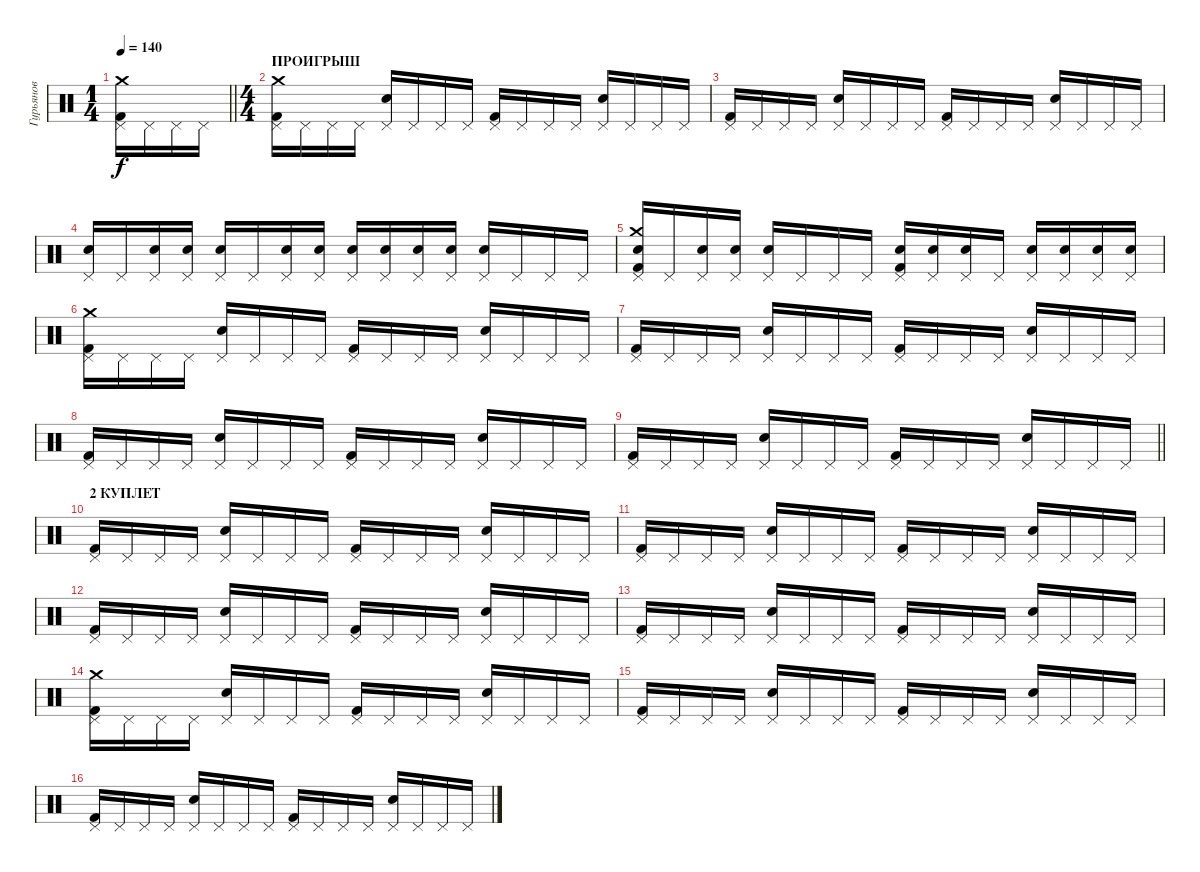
\track ("Гурьянов" "Гурьянов") {instrument percussion}
\staff {score}
\articulation defaults
\ts (1 4)
\tempo 140
\clef neutral
\barLineRight lightlight
\ks c
("Pedal Hi-Hat (hit)" "Kick (hit) 2" "Crash medium (hit)").16{dy f} "Pedal Hi-Hat (hit)".16 "Pedal Hi-Hat (hit)".16 "Pedal Hi-Hat (hit)".16 |
\ts (4 4)
\section ("" "ПРОИГРЫШ")
("Pedal Hi-Hat (hit)" "Kick (hit) 2" "Crash medium (hit)").16 "Pedal Hi-Hat (hit)".16 "Pedal Hi-Hat (hit)".16 "Pedal Hi-Hat (hit)".16 ("Pedal Hi-Hat (hit)" "Electric Snare (hit)").16 "Pedal Hi-Hat (hit)".16 "Pedal Hi-Hat (hit)".16 "Pedal Hi-Hat (hit)".16 ("Pedal Hi-Hat (hit)" "Kick (hit) 2").16 "Pedal Hi-Hat (hit)".16 "Pedal Hi-Hat (hit)".16 "Pedal Hi-Hat (hit)".16 ("Pedal Hi-Hat (hit)" "Electric Snare (hit)").16 "Pedal Hi-Hat (hit)".16 "Pedal Hi-Hat (hit)".16 "Pedal Hi-Hat (hit)".16 |
("Pedal Hi-Hat (hit)" "Kick (hit) 2").16 "Pedal Hi-Hat (hit)".16 "Pedal Hi-Hat (hit)".16 "Pedal Hi-Hat (hit)".16 ("Pedal Hi-Hat (hit)" "Electric Snare (hit)").16 "Pedal Hi-Hat (hit)".16 "Pedal Hi-Hat (hit)".16 "Pedal Hi-Hat (hit)".16 ("Pedal Hi-Hat (hit)" "Kick (hit) 2").16 "Pedal Hi-Hat (hit)".16 "Pedal Hi-Hat (hit)".16 "Pedal Hi-Hat (hit)".16 ("Pedal Hi-Hat (hit)" "Electric Snare (hit)").16 "Pedal Hi-Hat (hit)".16 "Pedal Hi-Hat (hit)".16 "Pedal Hi-Hat (hit)".16 |
("Pedal Hi-Hat (hit)" "Electric Snare (hit)").16 "Pedal Hi-Hat (hit)".16 ("Pedal Hi-Hat (hit)" "Electric Snare (hit)").16 ("Pedal Hi-Hat (hit)" "Electric Snare (hit)").16 ("Pedal Hi-Hat (hit)" "Electric Snare (hit)").16 "Pedal Hi-Hat (hit)".16 ("Pedal Hi-Hat (hit)" "Electric Snare (hit)").16 ("Pedal Hi-Hat (hit)" "Electric Snare (hit)").16 ("Pedal Hi-Hat (hit)" "Electric Snare (hit)").16 ("Pedal Hi-Hat (hit)" "Electric Snare (hit)").16 ("Pedal Hi-Hat (hit)" "Electric Snare (hit)").16 ("Pedal Hi-Hat (hit)" "Electric Snare (hit)").16 ("Pedal Hi-Hat (hit)" "Electric Snare (hit)").16 "Pedal Hi-Hat (hit)".16 "Pedal Hi-Hat (hit)".16 "Pedal Hi-Hat (hit)".16 |
("Pedal Hi-Hat (hit)" "Crash medium (hit)" "Kick (hit) 2" "Electric Snare (hit)").16 "Pedal Hi-Hat (hit)".16 ("Pedal Hi-Hat (hit)" "Electric Snare (hit)").16 ("Pedal Hi-Hat (hit)" "Electric Snare (hit)").16 ("Pedal Hi-Hat (hit)" "Electric Snare (hit)").16 "Pedal Hi-Hat (hit)".16 "Pedal Hi-Hat (hit)".16 "Pedal Hi-Hat (hit)".16 ("Pedal Hi-Hat (hit)" "Kick (hit) 2" "Electric Snare (hit)").16 ("Pedal Hi-Hat (hit)" "Electric Snare (hit)").16 ("Pedal Hi-Hat (hit)" "Electric Snare (hit)").16 "Pedal Hi-Hat (hit)".16 ("Pedal Hi-Hat (hit)" "Electric Snare (hit)").16 ("Pedal Hi-Hat (hit)" "Electric Snare (hit)").16 ("Pedal Hi-Hat (hit)" "Electric Snare (hit)").16 ("Pedal Hi-Hat (hit)" "Electric Snare (hit)").16 |
("Pedal Hi-Hat (hit)" "Kick (hit) 2" "Crash medium (hit)").16 "Pedal Hi-Hat (hit)".16 "Pedal Hi-Hat (hit)".16 "Pedal Hi-Hat (hit)".16 ("Pedal Hi-Hat (hit)" "Electric Snare (hit)").16 "Pedal Hi-Hat (hit)".16 "Pedal Hi-Hat (hit)".16 "Pedal Hi-Hat (hit)".16 ("Pedal Hi-Hat (hit)" "Kick (hit) 2").16 "Pedal Hi-Hat (hit)".16 "Pedal Hi-Hat (hit)".16 "Pedal Hi-Hat (hit)".16 ("Pedal Hi-Hat (hit)" "Electric Snare (hit)").16 "Pedal Hi-Hat (hit)".16 "Pedal Hi-Hat (hit)".16 "Pedal Hi-Hat (hit)".16 |
("Pedal Hi-Hat (hit)" "Kick (hit) 2").16 "Pedal Hi-Hat (hit)".16 "Pedal Hi-Hat (hit)".16 "Pedal Hi-Hat (hit)".16 ("Pedal Hi-Hat (hit)" "Electric Snare (hit)").16 "Pedal Hi-Hat (hit)".16 "Pedal Hi-Hat (hit)".16 "Pedal Hi-Hat (hit)".16 ("Pedal Hi-Hat (hit)" "Kick (hit) 2").16 "Pedal Hi-Hat (hit)".16 "Pedal Hi-Hat (hit)".16 "Pedal Hi-Hat (hit)".16 ("Pedal Hi-Hat (hit)" "Electric Snare (hit)").16 "Pedal Hi-Hat (hit)".16 "Pedal Hi-Hat (hit)".16 "Pedal Hi-Hat (hit)".16 |
("Pedal Hi-Hat (hit)" "Kick (hit) 2").16 "Pedal Hi-Hat (hit)".16 "Pedal Hi-Hat (hit)".16 "Pedal Hi-Hat (hit)".16 ("Pedal Hi-Hat (hit)" "Electric Snare (hit)").16 "Pedal Hi-Hat (hit)".16 "Pedal Hi-Hat (hit)".16 "Pedal Hi-Hat (hit)".16 ("Pedal Hi-Hat (hit)" "Kick (hit) 2").16 "Pedal Hi-Hat (hit)".16 "Pedal Hi-Hat (hit)".16 "Pedal Hi-Hat (hit)".16 ("Pedal Hi-Hat (hit)" "Electric Snare (hit)").16 "Pedal Hi-Hat (hit)".16 "Pedal Hi-Hat (hit)".16 "Pedal Hi-Hat (hit)".16 |
\barLineRight lightlight
("Pedal Hi-Hat (hit)" "Kick (hit) 2").16 "Pedal Hi-Hat (hit)".16 "Pedal Hi-Hat (hit)".16 "Pedal Hi-Hat (hit)".16 ("Pedal Hi-Hat (hit)" "Electric Snare (hit)").16 "Pedal Hi-Hat (hit)".16 "Pedal Hi-Hat (hit)".16 "Pedal Hi-Hat (hit)".16 ("Pedal Hi-Hat (hit)" "Kick (hit) 2").16 "Pedal Hi-Hat (hit)".16 "Pedal Hi-Hat (hit)".16 "Pedal Hi-Hat (hit)".16 ("Pedal Hi-Hat (hit)" "Electric Snare (hit)").16 "Pedal Hi-Hat (hit)".16 "Pedal Hi-Hat (hit)".16 "Pedal Hi-Hat (hit)".16 |
\section ("" "2 КУПЛЕТ")
("Pedal Hi-Hat (hit)" "Kick (hit) 2").16 "Pedal Hi-Hat (hit)".16 "Pedal Hi-Hat (hit)".16 "Pedal Hi-Hat (hit)".16 ("Pedal Hi-Hat (hit)" "Electric Snare (hit)").16 "Pedal Hi-Hat (hit)".16 "Pedal Hi-Hat (hit)".16 "Pedal Hi-Hat (hit)".16 ("Pedal Hi-Hat (hit)" "Kick (hit) 2").16 "Pedal Hi-Hat (hit)".16 "Pedal Hi-Hat (hit)".16 "Pedal Hi-Hat (hit)".16 ("Pedal Hi-Hat (hit)" "Electric Snare (hit)").16 "Pedal Hi-Hat (hit)".16 "Pedal Hi-Hat (hit)".16 "Pedal Hi-Hat (hit)".16 |
("Pedal Hi-Hat (hit)" "Kick (hit) 2").16 "Pedal Hi-Hat (hit)".16 "Pedal Hi-Hat (hit)".16 "Pedal Hi-Hat (hit)".16 ("Pedal Hi-Hat (hit)" "Electric Snare (hit)").16 "Pedal Hi-Hat (hit)".16 "Pedal Hi-Hat (hit)".16 "Pedal Hi-Hat (hit)".16 ("Pedal Hi-Hat (hit)" "Kick (hit) 2").16 "Pedal Hi-Hat (hit)".16 "Pedal Hi-Hat (hit)".16 "Pedal Hi-Hat (hit)".16 ("Pedal Hi-Hat (hit)" "Electric Snare (hit)").16 "Pedal Hi-Hat (hit)".16 "Pedal Hi-Hat (hit)".16 "Pedal Hi-Hat (hit)".16 |
("Pedal Hi-Hat (hit)" "Kick (hit) 2").16 "Pedal Hi-Hat (hit)".16 "Pedal Hi-Hat (hit)".16 "Pedal Hi-Hat (hit)".16 ("Pedal Hi-Hat (hit)" "Electric Snare (hit)").16 "Pedal Hi-Hat (hit)".16 "Pedal Hi-Hat (hit)".16 "Pedal Hi-Hat (hit)".16 ("Pedal Hi-Hat (hit)" "Kick (hit) 2").16 "Pedal Hi-Hat (hit)".16 "Pedal Hi-Hat (hit)".16 "Pedal Hi-Hat (hit)".16 ("Pedal Hi-Hat (hit)" "Electric Snare (hit)").16 "Pedal Hi-Hat (hit)".16 "Pedal Hi-Hat (hit)".16 "Pedal Hi-Hat (hit)".16 |
("Pedal Hi-Hat (hit)" "Kick (hit) 2").16 "Pedal Hi-Hat (hit)".16 "Pedal Hi-Hat (hit)".16 "Pedal Hi-Hat (hit)".16 ("Pedal Hi-Hat (hit)" "Electric Snare (hit)").16 "Pedal Hi-Hat (hit)".16 "Pedal Hi-Hat (hit)".16 "Pedal Hi-Hat (hit)".16 ("Pedal Hi-Hat (hit)" "Kick (hit) 2").16 "Pedal Hi-Hat (hit)".16 "Pedal Hi-Hat (hit)".16 "Pedal Hi-Hat (hit)".16 ("Pedal Hi-Hat (hit)" "Electric Snare (hit)").16 "Pedal Hi-Hat (hit)".16 "Pedal Hi-Hat (hit)".16 "Pedal Hi-Hat (hit)".16 |
("Pedal Hi-Hat (hit)" "Crash medium (hit)" "Kick (hit) 2").16 "Pedal Hi-Hat (hit)".16 "Pedal Hi-Hat (hit)".16 "Pedal Hi-Hat (hit)".16 ("Pedal Hi-Hat (hit)" "Electric Snare (hit)").16 "Pedal Hi-Hat (hit)".16 "Pedal Hi-Hat (hit)".16 "Pedal Hi-Hat (hit)".16 ("Pedal Hi-Hat (hit)" "Kick (hit) 2").16 "Pedal Hi-Hat (hit)".16 "Pedal Hi-Hat (hit)".16 "Pedal Hi-Hat (hit)".16 ("Pedal Hi-Hat (hit)" "Electric Snare (hit)").16 "Pedal Hi-Hat (hit)".16 "Pedal Hi-Hat (hit)".16 "Pedal Hi-Hat (hit)".16 |
("Pedal Hi-Hat (hit)" "Kick (hit) 2").16 "Pedal Hi-Hat (hit)".16 "Pedal Hi-Hat (hit)".16 "Pedal Hi-Hat (hit)".16 ("Pedal Hi-Hat (hit)" "Electric Snare (hit)").16 "Pedal Hi-Hat (hit)".16 "Pedal Hi-Hat (hit)".16 "Pedal Hi-Hat (hit)".16 ("Pedal Hi-Hat (hit)" "Kick (hit) 2").16 "Pedal Hi-Hat (hit)".16 "Pedal Hi-Hat (hit)".16 "Pedal Hi-Hat (hit)".16 ("Pedal Hi-Hat (hit)" "Electric Snare (hit)").16 "Pedal Hi-Hat (hit)".16 "Pedal Hi-Hat (hit)".16 "Pedal Hi-Hat (hit)".16 |
("Pedal Hi-Hat (hit)" "Kick (hit) 2").16 "Pedal Hi-Hat (hit)".16 "Pedal Hi-Hat (hit)".16 "Pedal Hi-Hat (hit)".16 ("Pedal Hi-Hat (hit)" "Electric Snare (hit)").16 "Pedal Hi-Hat (hit)".16 "Pedal Hi-Hat (hit)".16 "Pedal Hi-Hat (hit)".16 ("Pedal Hi-Hat (hit)" "Kick (hit) 2").16 "Pedal Hi-Hat (hit)".16 "Pedal Hi-Hat (hit)".16 "Pedal Hi-Hat (hit)".16 ("Pedal Hi-Hat (hit)" "Electric Snare (hit)").16 "Pedal Hi-Hat (hit)".16 "Pedal Hi-Hat (hit)".16 "Pedal Hi-Hat (hit)".16
